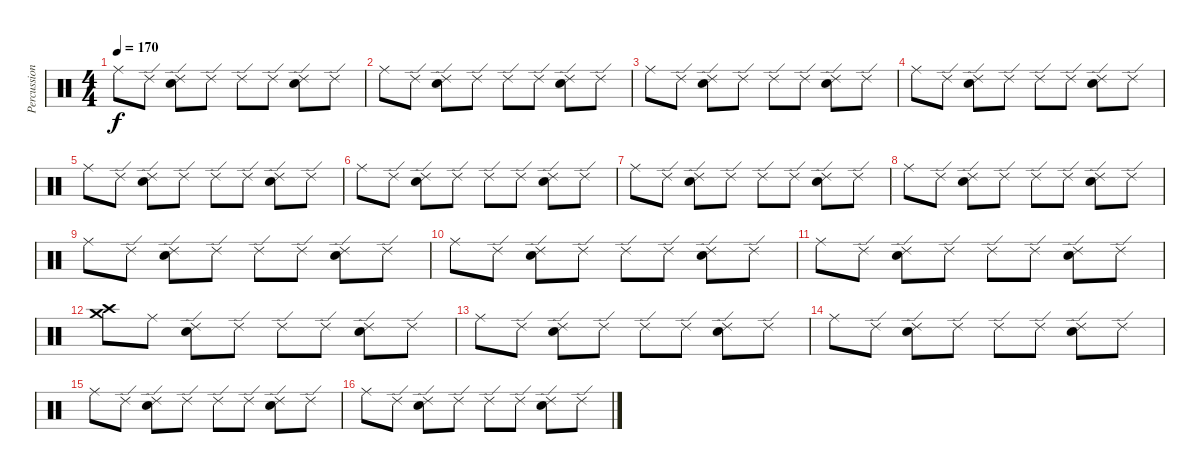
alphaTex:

\track ("Percussion" "Percussion") {instrument percussion}
\staff {score}
\articulation defaults
\ts (4 4)
\tempo 170
\clef neutral
\ks c "Ride (middle)".8{dy f} "Ride (edge) 2".8
("Ride (edge) 2" "Electric Snare (hit)").8 "Ride (edge) 2".8 "Ride (edge) 2".8 "Ride (edge) 2".8 ("Ride (edge) 2" "Electric Snare (hit)").8 "Ride (edge) 2".8 |
"Ride (middle)".8 "Ride (edge) 2".8 ("Ride (edge) 2" "Electric Snare (hit)").8 "Ride (edge) 2".8 "Ride (edge) 2".8 "Ride (edge) 2".8 ("Ride (edge) 2" "Electric Snare (hit)").8 "Ride (edge) 2".8 |
"Ride (middle)".8 "Ride (edge) 2".8 ("Ride (edge) 2" "Electric Snare (hit)").8 "Ride (edge) 2".8 "Ride (edge) 2".8 "Ride (edge) 2".8 ("Ride (edge) 2" "Electric Snare (hit)").8 "Ride (edge) 2".8 |
"Ride (middle)".8 "Ride (edge) 2".8 ("Ride (edge) 2" "Electric Snare (hit)").8 "Ride (edge) 2".8 "Ride (edge) 2".8 "Ride (edge) 2".8 ("Ride (edge) 2" "Electric Snare (hit)").8 "Ride (edge) 2".8 |
"Ride (middle)".8 "Ride (edge) 2".8 ("Ride (edge) 2" "Electric Snare (hit)").8 "Ride (edge) 2".8 "Ride (edge) 2".8 "Ride (edge) 2".8 ("Ride (edge) 2" "Electric Snare (hit)").8 "Ride (edge) 2".8 |
"Ride (middle)".8 "Ride (edge) 2".8 ("Ride (edge) 2" "Electric Snare (hit)").8 "Ride (edge) 2".8 "Ride (edge) 2".8 "Ride (edge) 2".8 ("Ride (edge) 2" "Electric Snare (hit)").8 "Ride (edge) 2".8 |
"Ride (middle)".8 "Ride (edge) 2".8 ("Ride (edge) 2" "Electric Snare (hit)").8 "Ride (edge) 2".8 "Ride (edge) 2".8 "Ride (edge) 2".8 ("Ride (edge) 2" "Electric Snare (hit)").8 "Ride (edge) 2".8 |
"Ride (middle)".8 "Ride (edge) 2".8 ("Ride (edge) 2" "Electric Snare (hit)").8 "Ride (edge) 2".8 "Ride (edge) 2".8 "Ride (edge) 2".8 ("Ride (edge) 2" "Electric Snare (hit)").8 "Ride (edge) 2".8 |
"Ride (middle)".8 "Ride (edge) 2".8 ("Ride (edge) 2" "Electric Snare (hit)").8 "Ride (edge) 2".8 "Ride (edge) 2".8 "Ride (edge) 2".8 ("Ride (edge) 2" "Electric Snare (hit)").8 "Ride (edge) 2".8 |
"Ride (middle)".8 "Ride (edge) 2".8 ("Ride (edge) 2" "Electric Snare (hit)").8 "Ride (edge) 2".8 "Ride (edge) 2".8 "Ride (edge) 2".8 ("Ride (edge) 2" "Electric Snare (hit)").8 "Ride (edge) 2".8 |
"Ride (middle)".8 "Ride (edge) 2".8 ("Ride (edge) 2" "Electric Snare (hit)").8 "Ride (edge) 2".8 "Ride (edge) 2".8 "Ride (edge) 2".8 ("Ride (edge) 2" "Electric Snare (hit)").8 "Ride (edge) 2".8 |
("Crash medium (hit)" "Crash high (hit)").8 "Ride (middle)".8 ("Ride (edge) 2" "Electric Snare (hit)").8 "Ride (edge) 2".8 "Ride (edge) 2".8 "Ride (edge) 2".8 ("Ride (edge) 2" "Electric Snare (hit)").8 "Ride (edge) 2".8 |
"Ride (middle)".8 "Ride (edge) 2".8 ("Ride (edge) 2" "Electric Snare (hit)").8 "Ride (edge) 2".8 "Ride (edge) 2".8 "Ride (edge) 2".8 ("Ride (edge) 2" "Electric Snare (hit)").8 "Ride (edge) 2".8 |
"Ride (middle)".8 "Ride (edge) 2".8 ("Ride (edge) 2" "Electric Snare (hit)").8 "Ride (edge) 2".8 "Ride (edge) 2".8 "Ride (edge) 2".8 ("Ride (edge) 2" "Electric Snare (hit)").8 "Ride (edge) 2".8 |
"Ride (middle)".8 "Ride (edge) 2".8 ("Ride (edge) 2" "Electric Snare (hit)").8 "Ride (edge) 2".8 "Ride (edge) 2".8 "Ride (edge) 2".8 ("Ride (edge) 2" "Electric Snare (hit)").8 "Ride (edge) 2".8 |
"Ride (middle)".8 "Ride (edge) 2".8 ("Ride (edge) 2" "Electric Snare (hit)").8 "Ride (edge) 2".8 "Ride (edge) 2".8 "Ride (edge) 2".8 ("Ride (edge) 2" "Electric Snare (hit)").8 "Ride (edge) 2".8
